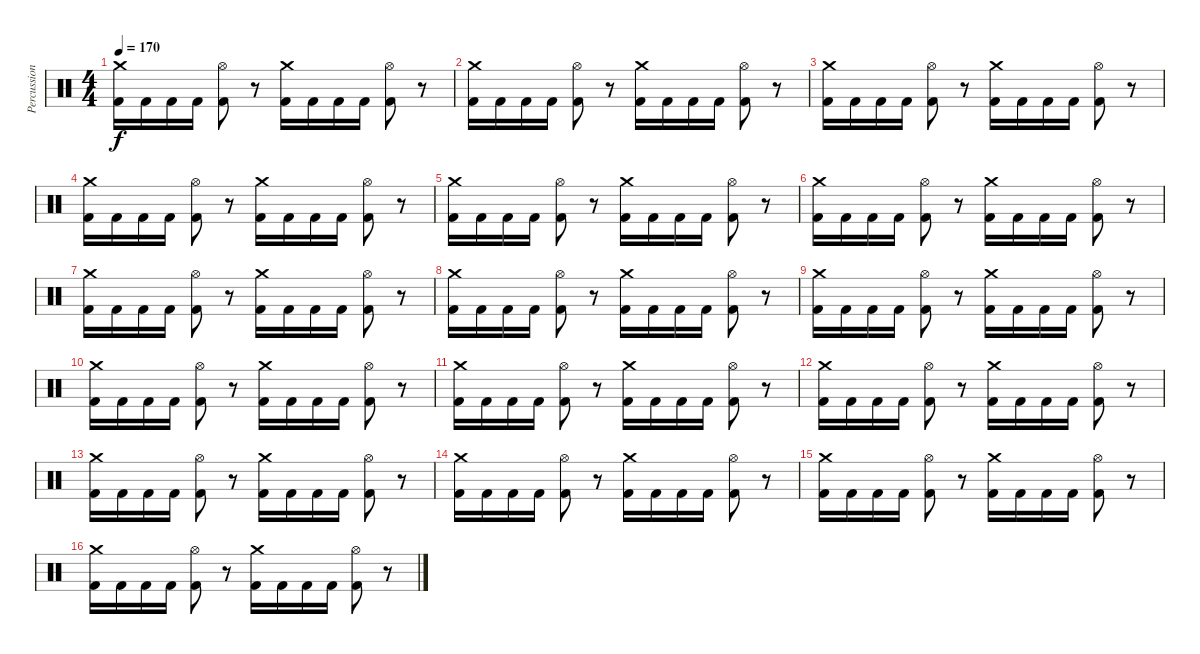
\track ("Percussion" "Percussion") {instrument percussion}
\staff {score}
\articulation defaults
\ts (4 4)
\tempo 170
\clef neutral
\ks c
("Crash medium (hit)" "Kick (hit) 2").16{dy f} "Kick (hit) 2".16 "Kick (hit) 2".16 "Kick (hit) 2".16 ("Hi-Hat (open)" "Kick (hit) 2").8 r.8 ("Crash medium (hit)" "Kick (hit) 2").16 "Kick (hit) 2".16 "Kick (hit) 2".16 "Kick (hit) 2".16 ("Hi-Hat (open)" "Kick (hit) 2").8 r.8 |
("Crash medium (hit)" "Kick (hit) 2").16 "Kick (hit) 2".16 "Kick (hit) 2".16 "Kick (hit) 2".16 ("Hi-Hat (open)" "Kick (hit) 2").8 r.8 ("Crash medium (hit)" "Kick (hit) 2").16 "Kick (hit) 2".16 "Kick (hit) 2".16 "Kick (hit) 2".16 ("Hi-Hat (open)" "Kick (hit) 2").8 r.8 |
("Crash medium (hit)" "Kick (hit) 2").16 "Kick (hit) 2".16 "Kick (hit) 2".16 "Kick (hit) 2".16 ("Hi-Hat (open)" "Kick (hit) 2").8 r.8 ("Crash medium (hit)" "Kick (hit) 2").16 "Kick (hit) 2".16 "Kick (hit) 2".16 "Kick (hit) 2".16 ("Hi-Hat (open)" "Kick (hit) 2").8 r.8 |
("Crash medium (hit)" "Kick (hit) 2").16 "Kick (hit) 2".16 "Kick (hit) 2".16 "Kick (hit) 2".16 ("Hi-Hat (open)" "Kick (hit) 2").8 r.8 ("Crash medium (hit)" "Kick (hit) 2").16 "Kick (hit) 2".16 "Kick (hit) 2".16 "Kick (hit) 2".16 ("Hi-Hat (open)" "Kick (hit) 2").8 r.8 |
("Crash medium (hit)" "Kick (hit) 2").16 "Kick (hit) 2".16 "Kick (hit) 2".16 "Kick (hit) 2".16 ("Hi-Hat (open)" "Kick (hit) 2").8 r.8 ("Crash medium (hit)" "Kick (hit) 2").16 "Kick (hit) 2".16 "Kick (hit) 2".16 "Kick (hit) 2".16 ("Hi-Hat (open)" "Kick (hit) 2").8 r.8 |
("Crash medium (hit)" "Kick (hit) 2").16 "Kick (hit) 2".16 "Kick (hit) 2".16 "Kick (hit) 2".16 ("Hi-Hat (open)" "Kick (hit) 2").8 r.8 ("Crash medium (hit)" "Kick (hit) 2").16 "Kick (hit) 2".16 "Kick (hit) 2".16 "Kick (hit) 2".16 ("Hi-Hat (open)" "Kick (hit) 2").8 r.8 |
("Crash medium (hit)" "Kick (hit) 2").16 "Kick (hit) 2".16 "Kick (hit) 2".16 "Kick (hit) 2".16 ("Hi-Hat (open)" "Kick (hit) 2").8 r.8 ("Crash medium (hit)" "Kick (hit) 2").16 "Kick (hit) 2".16 "Kick (hit) 2".16 "Kick (hit) 2".16 ("Hi-Hat (open)" "Kick (hit) 2").8 r.8 |
("Crash medium (hit)" "Kick (hit) 2").16 "Kick (hit) 2".16 "Kick (hit) 2".16 "Kick (hit) 2".16 ("Hi-Hat (open)" "Kick (hit) 2").8 r.8 ("Crash medium (hit)" "Kick (hit) 2").16 "Kick (hit) 2".16 "Kick (hit) 2".16 "Kick (hit) 2".16 ("Hi-Hat (open)" "Kick (hit) 2").8 r.8 |
("Crash medium (hit)" "Kick (hit) 2").16 "Kick (hit) 2".16 "Kick (hit) 2".16 "Kick (hit) 2".16 ("Hi-Hat (open)" "Kick (hit) 2").8 r.8 ("Crash medium (hit)" "Kick (hit) 2").16 "Kick (hit) 2".16 "Kick (hit) 2".16 "Kick (hit) 2".16 ("Hi-Hat (open)" "Kick (hit) 2").8 r.8 |
("Crash medium (hit)" "Kick (hit) 2").16 "Kick (hit) 2".16 "Kick (hit) 2".16 "Kick (hit) 2".16 ("Hi-Hat (open)" "Kick (hit) 2").8 r.8 ("Crash medium (hit)" "Kick (hit) 2").16 "Kick (hit) 2".16 "Kick (hit) 2".16 "Kick (hit) 2".16 ("Hi-Hat (open)" "Kick (hit) 2").8 r.8 |
("Crash medium (hit)" "Kick (hit) 2").16 "Kick (hit) 2".16 "Kick (hit) 2".16 "Kick (hit) 2".16 ("Hi-Hat (open)" "Kick (hit) 2").8 r.8 ("Crash medium (hit)" "Kick (hit) 2").16 "Kick (hit) 2".16 "Kick (hit) 2".16 "Kick (hit) 2".16 ("Hi-Hat (open)" "Kick (hit) 2").8 r.8 |
("Crash medium (hit)" "Kick (hit) 2").16 "Kick (hit) 2".16 "Kick (hit) 2".16 "Kick (hit) 2".16 ("Hi-Hat (open)" "Kick (hit) 2").8 r.8 ("Crash medium (hit)" "Kick (hit) 2").16 "Kick (hit) 2".16 "Kick (hit) 2".16 "Kick (hit) 2".16 ("Hi-Hat (open)" "Kick (hit) 2").8 r.8 |
("Crash medium (hit)" "Kick (hit) 2").16 "Kick (hit) 2".16 "Kick (hit) 2".16 "Kick (hit) 2".16 ("Hi-Hat (open)" "Kick (hit) 2").8 r.8 ("Crash medium (hit)" "Kick (hit) 2").16 "Kick (hit) 2".16 "Kick (hit) 2".16 "Kick (hit) 2".16 ("Hi-Hat (open)" "Kick (hit) 2").8 r.8 |
("Crash medium (hit)" "Kick (hit) 2").16 "Kick (hit) 2".16 "Kick (hit) 2".16 "Kick (hit) 2".16 ("Hi-Hat (open)" "Kick (hit) 2").8 r.8 ("Crash medium (hit)" "Kick (hit) 2").16 "Kick (hit) 2".16 "Kick (hit) 2".16 "Kick (hit) 2".16 ("Hi-Hat (open)" "Kick (hit) 2").8 r.8 |
("Crash medium (hit)" "Kick (hit) 2").16 "Kick (hit) 2".16 "Kick (hit) 2".16 "Kick (hit) 2".16 ("Hi-Hat (open)" "Kick (hit) 2").8 r.8 ("Crash medium (hit)" "Kick (hit) 2").16 "Kick (hit) 2".16 "Kick (hit) 2".16 "Kick (hit) 2".16 ("Hi-Hat (open)" "Kick (hit) 2").8 r.8 |
("Crash medium (hit)" "Kick (hit) 2").16 "Kick (hit) 2".16 "Kick (hit) 2".16 "Kick (hit) 2".16 ("Hi-Hat (open)" "Kick (hit) 2").8 r.8 ("Crash medium (hit)" "Kick (hit) 2").16 "Kick (hit) 2".16 "Kick (hit) 2".16 "Kick (hit) 2".16 ("Hi-Hat (open)" "Kick (hit) 2").8 r.8
